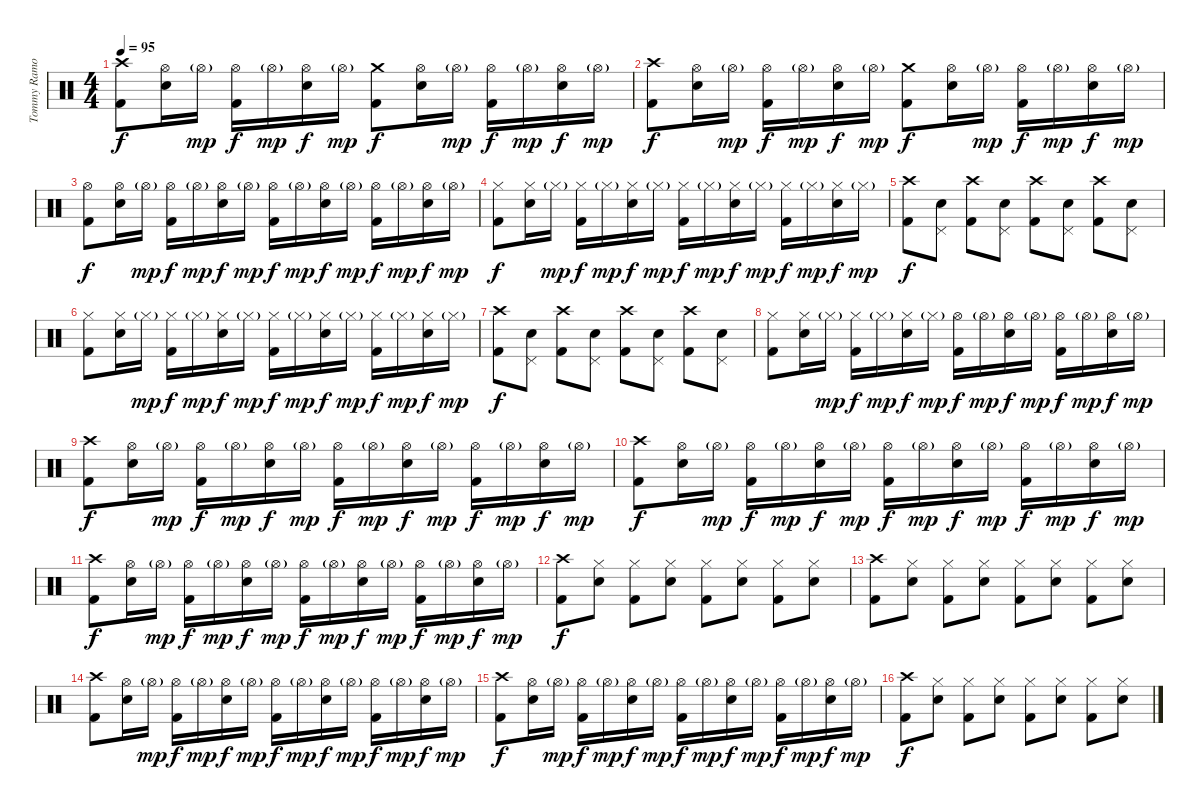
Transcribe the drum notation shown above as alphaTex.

\track ("Tommy Ramone (Drums)" "Tommy Ramo") {instrument percussion}
\staff {score}
\articulation defaults
\ts (4 4)
\tempo 95
\clef neutral
\ks c
("Crash high (hit)" "Kick (hit) 2").8{dy f} ("Hi-Hat (open)" "Snare (hit) 2").16 "Hi-Hat (open)"{g}.16{dy mp} ("Hi-Hat (open)" "Kick (hit) 2").16{dy f} "Hi-Hat (open)"{g}.16{dy mp} ("Hi-Hat (open)" "Snare (hit) 2").16{dy f} "Hi-Hat (open)"{g}.16{dy mp} ("Crash medium (hit)" "Kick (hit) 2").8{dy f} ("Hi-Hat (open)" "Snare (hit) 2").16 "Hi-Hat (open)"{g}.16{dy mp} ("Hi-Hat (open)" "Kick (hit) 2").16{dy f} "Hi-Hat (open)"{g}.16{dy mp} ("Hi-Hat (open)" "Snare (hit) 2").16{dy f} "Hi-Hat (open)"{g}.16{dy mp} |
("Crash high (hit)" "Kick (hit) 2").8{dy f} ("Hi-Hat (open)" "Snare (hit) 2").16 "Hi-Hat (open)"{g}.16{dy mp} ("Hi-Hat (open)" "Kick (hit) 2").16{dy f} "Hi-Hat (open)"{g}.16{dy mp} ("Hi-Hat (open)" "Snare (hit) 2").16{dy f} "Hi-Hat (open)"{g}.16{dy mp} ("Crash medium (hit)" "Kick (hit) 2").8{dy f} ("Hi-Hat (open)" "Snare (hit) 2").16 "Hi-Hat (open)"{g}.16{dy mp} ("Hi-Hat (open)" "Kick (hit) 2").16{dy f} "Hi-Hat (open)"{g}.16{dy mp} ("Hi-Hat (open)" "Snare (hit) 2").16{dy f} "Hi-Hat (open)"{g}.16{dy mp} |
("Hi-Hat (open)" "Kick (hit) 2").8{dy f} ("Hi-Hat (open)" "Snare (hit) 2").16 "Hi-Hat (open)"{g}.16{dy mp} ("Hi-Hat (open)" "Kick (hit) 2").16{dy f} "Hi-Hat (open)"{g}.16{dy mp} ("Hi-Hat (open)" "Snare (hit) 2").16{dy f} "Hi-Hat (open)"{g}.16{dy mp} ("Hi-Hat (open)" "Kick (hit) 2").16{dy f} "Hi-Hat (open)"{g}.16{dy mp} ("Hi-Hat (open)" "Snare (hit) 2").16{dy f} "Hi-Hat (open)"{g}.16{dy mp} ("Hi-Hat (open)" "Kick (hit) 2").16{dy f} "Hi-Hat (open)"{g}.16{dy mp} ("Hi-Hat (open)" "Snare (hit) 2").16{dy f} "Hi-Hat (open)"{g}.16{dy mp} |
("Hi-Hat (closed)" "Kick (hit) 2").8{dy f} ("Hi-Hat (closed)" "Snare (hit) 2").16 "Hi-Hat (closed)"{g}.16{dy mp} ("Hi-Hat (closed)" "Kick (hit) 2").16{dy f} "Hi-Hat (closed)"{g}.16{dy mp} ("Hi-Hat (closed)" "Snare (hit) 2").16{dy f} "Hi-Hat (closed)"{g}.16{dy mp} ("Hi-Hat (closed)" "Kick (hit) 2").16{dy f} "Hi-Hat (closed)"{g}.16{dy mp} ("Hi-Hat (closed)" "Snare (hit) 2").16{dy f} "Hi-Hat (closed)"{g}.16{dy mp} ("Hi-Hat (closed)" "Kick (hit) 2").16{dy f} "Hi-Hat (closed)"{g}.16{dy mp} ("Hi-Hat (closed)" "Snare (hit) 2").16{dy f} "Hi-Hat (closed)"{g}.16{dy mp} |
("Crash high (hit)" "Kick (hit) 2").8{dy f} ("Pedal Hi-Hat (hit)" "Snare (hit) 2").8 ("Crash high (hit)" "Kick (hit) 2").8 ("Pedal Hi-Hat (hit)" "Snare (hit) 2").8 ("Crash high (hit)" "Kick (hit) 2").8 ("Pedal Hi-Hat (hit)" "Snare (hit) 2").8 ("Crash high (hit)" "Kick (hit) 2").8 ("Pedal Hi-Hat (hit)" "Snare (hit) 2").8 |
("Hi-Hat (closed)" "Kick (hit) 2").8 ("Hi-Hat (closed)" "Snare (hit) 2").16 "Hi-Hat (closed)"{g}.16{dy mp} ("Hi-Hat (closed)" "Kick (hit) 2").16{dy f} "Hi-Hat (closed)"{g}.16{dy mp} ("Hi-Hat (closed)" "Snare (hit) 2").16{dy f} "Hi-Hat (closed)"{g}.16{dy mp} ("Hi-Hat (closed)" "Kick (hit) 2").16{dy f} "Hi-Hat (closed)"{g}.16{dy mp} ("Hi-Hat (closed)" "Snare (hit) 2").16{dy f} "Hi-Hat (closed)"{g}.16{dy mp} ("Hi-Hat (closed)" "Kick (hit) 2").16{dy f} "Hi-Hat (closed)"{g}.16{dy mp} ("Hi-Hat (closed)" "Snare (hit) 2").16{dy f} "Hi-Hat (closed)"{g}.16{dy mp} |
("Crash high (hit)" "Kick (hit) 2").8{dy f} ("Pedal Hi-Hat (hit)" "Snare (hit) 2").8 ("Crash high (hit)" "Kick (hit) 2").8 ("Pedal Hi-Hat (hit)" "Snare (hit) 2").8 ("Crash high (hit)" "Kick (hit) 2").8 ("Pedal Hi-Hat (hit)" "Snare (hit) 2").8 ("Crash high (hit)" "Kick (hit) 2").8 ("Pedal Hi-Hat (hit)" "Snare (hit) 2").8 |
("Hi-Hat (closed)" "Kick (hit) 2").8 ("Hi-Hat (closed)" "Snare (hit) 2").16 "Hi-Hat (closed)"{g}.16{dy mp} ("Hi-Hat (closed)" "Kick (hit) 2").16{dy f} "Hi-Hat (closed)"{g}.16{dy mp} ("Hi-Hat (closed)" "Snare (hit) 2").16{dy f} "Hi-Hat (closed)"{g}.16{dy mp} ("Hi-Hat (open)" "Kick (hit) 2").16{dy f} "Hi-Hat (open)"{g}.16{dy mp} ("Hi-Hat (open)" "Snare (hit) 2").16{dy f} "Hi-Hat (open)"{g}.16{dy mp} ("Hi-Hat (open)" "Kick (hit) 2").16{dy f} "Hi-Hat (open)"{g}.16{dy mp} ("Hi-Hat (open)" "Snare (hit) 2").16{dy f} "Hi-Hat (open)"{g}.16{dy mp} |
("Crash high (hit)" "Kick (hit) 2").8{dy f} ("Hi-Hat (open)" "Snare (hit) 2").16 "Hi-Hat (open)"{g}.16{dy mp} ("Hi-Hat (open)" "Kick (hit) 2").16{dy f} "Hi-Hat (open)"{g}.16{dy mp} ("Hi-Hat (open)" "Snare (hit) 2").16{dy f} "Hi-Hat (open)"{g}.16{dy mp} ("Hi-Hat (open)" "Kick (hit) 2").16{dy f} "Hi-Hat (open)"{g}.16{dy mp} ("Hi-Hat (open)" "Snare (hit) 2").16{dy f} "Hi-Hat (open)"{g}.16{dy mp} ("Hi-Hat (open)" "Kick (hit) 2").16{dy f} "Hi-Hat (open)"{g}.16{dy mp} ("Hi-Hat (open)" "Snare (hit) 2").16{dy f} "Hi-Hat (open)"{g}.16{dy mp} |
("Crash high (hit)" "Kick (hit) 2").8{dy f} ("Hi-Hat (open)" "Snare (hit) 2").16 "Hi-Hat (open)"{g}.16{dy mp} ("Hi-Hat (open)" "Kick (hit) 2").16{dy f} "Hi-Hat (open)"{g}.16{dy mp} ("Hi-Hat (open)" "Snare (hit) 2").16{dy f} "Hi-Hat (open)"{g}.16{dy mp} ("Hi-Hat (open)" "Kick (hit) 2").16{dy f} "Hi-Hat (open)"{g}.16{dy mp} ("Hi-Hat (open)" "Snare (hit) 2").16{dy f} "Hi-Hat (open)"{g}.16{dy mp} ("Hi-Hat (open)" "Kick (hit) 2").16{dy f} "Hi-Hat (open)"{g}.16{dy mp} ("Hi-Hat (open)" "Snare (hit) 2").16{dy f} "Hi-Hat (open)"{g}.16{dy mp} |
("Crash high (hit)" "Kick (hit) 2").8{dy f} ("Hi-Hat (open)" "Snare (hit) 2").16 "Hi-Hat (open)"{g}.16{dy mp} ("Hi-Hat (open)" "Kick (hit) 2").16{dy f} "Hi-Hat (open)"{g}.16{dy mp} ("Hi-Hat (open)" "Snare (hit) 2").16{dy f} "Hi-Hat (open)"{g}.16{dy mp} ("Hi-Hat (open)" "Kick (hit) 2").16{dy f} "Hi-Hat (open)"{g}.16{dy mp} ("Hi-Hat (open)" "Snare (hit) 2").16{dy f} "Hi-Hat (open)"{g}.16{dy mp} ("Hi-Hat (open)" "Kick (hit) 2").16{dy f} "Hi-Hat (open)"{g}.16{dy mp} ("Hi-Hat (open)" "Snare (hit) 2").16{dy f} "Hi-Hat (open)"{g}.16{dy mp} |
("Crash high (hit)" "Kick (hit) 2").8{dy f} ("Hi-Hat (closed)" "Snare (hit) 2").8 ("Hi-Hat (closed)" "Kick (hit) 2").8 ("Hi-Hat (closed)" "Snare (hit) 2").8 ("Hi-Hat (closed)" "Kick (hit) 2").8 ("Hi-Hat (closed)" "Snare (hit) 2").8 ("Hi-Hat (closed)" "Kick (hit) 2").8 ("Hi-Hat (closed)" "Snare (hit) 2").8 |
("Crash high (hit)" "Kick (hit) 2").8 ("Hi-Hat (closed)" "Snare (hit) 2").8 ("Hi-Hat (closed)" "Kick (hit) 2").8 ("Hi-Hat (closed)" "Snare (hit) 2").8 ("Hi-Hat (closed)" "Kick (hit) 2").8 ("Hi-Hat (closed)" "Snare (hit) 2").8 ("Hi-Hat (closed)" "Kick (hit) 2").8 ("Hi-Hat (closed)" "Snare (hit) 2").8 |
("Crash high (hit)" "Kick (hit) 2").8 ("Hi-Hat (open)" "Snare (hit) 2").16 "Hi-Hat (open)"{g}.16{dy mp} ("Hi-Hat (open)" "Kick (hit) 2").16{dy f} "Hi-Hat (open)"{g}.16{dy mp} ("Hi-Hat (open)" "Snare (hit) 2").16{dy f} "Hi-Hat (open)"{g}.16{dy mp} ("Hi-Hat (open)" "Kick (hit) 2").16{dy f} "Hi-Hat (open)"{g}.16{dy mp} ("Hi-Hat (open)" "Snare (hit) 2").16{dy f} "Hi-Hat (open)"{g}.16{dy mp} ("Hi-Hat (open)" "Kick (hit) 2").16{dy f} "Hi-Hat (open)"{g}.16{dy mp} ("Hi-Hat (open)" "Snare (hit) 2").16{dy f} "Hi-Hat (open)"{g}.16{dy mp} |
("Crash high (hit)" "Kick (hit) 2").8{dy f} ("Hi-Hat (open)" "Snare (hit) 2").16 "Hi-Hat (open)"{g}.16{dy mp} ("Hi-Hat (open)" "Kick (hit) 2").16{dy f} "Hi-Hat (open)"{g}.16{dy mp} ("Hi-Hat (open)" "Snare (hit) 2").16{dy f} "Hi-Hat (open)"{g}.16{dy mp} ("Hi-Hat (open)" "Kick (hit) 2").16{dy f} "Hi-Hat (open)"{g}.16{dy mp} ("Hi-Hat (open)" "Snare (hit) 2").16{dy f} "Hi-Hat (open)"{g}.16{dy mp} ("Hi-Hat (open)" "Kick (hit) 2").16{dy f} "Hi-Hat (open)"{g}.16{dy mp} ("Hi-Hat (open)" "Snare (hit) 2").16{dy f} "Hi-Hat (open)"{g}.16{dy mp} |
("Crash high (hit)" "Kick (hit) 2").8{dy f} ("Hi-Hat (closed)" "Snare (hit) 2").8 ("Hi-Hat (closed)" "Kick (hit) 2").8 ("Hi-Hat (closed)" "Snare (hit) 2").8 ("Hi-Hat (closed)" "Kick (hit) 2").8 ("Hi-Hat (closed)" "Snare (hit) 2").8 ("Hi-Hat (closed)" "Kick (hit) 2").8 ("Hi-Hat (closed)" "Snare (hit) 2").8
